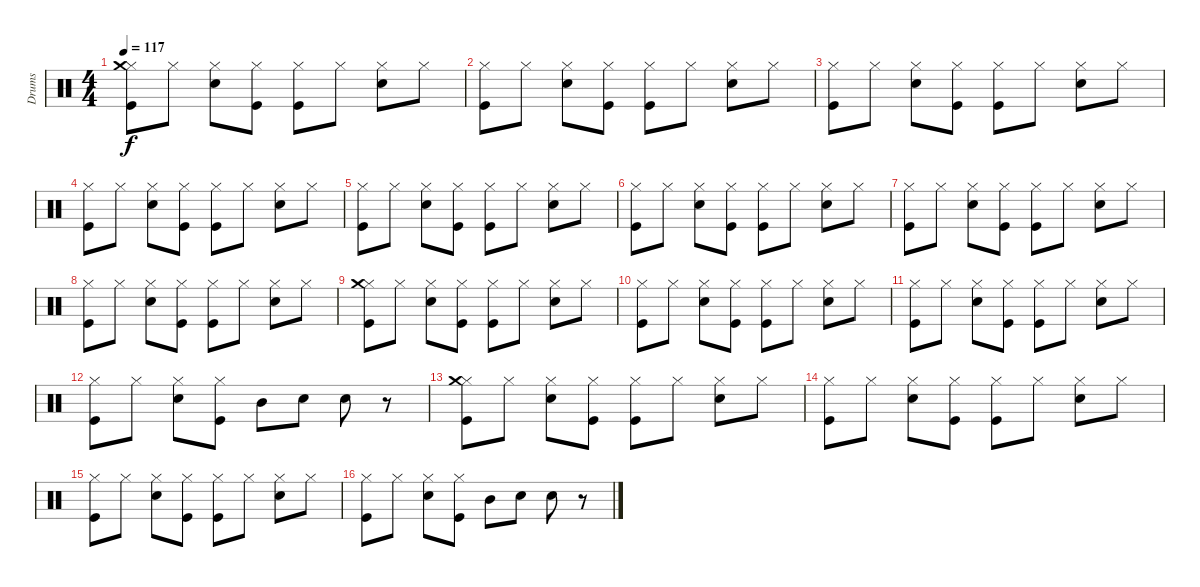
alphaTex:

\track ("Drums" "Drums") {instrument percussion}
\staff {score}
\articulation defaults
\ts (4 4)
\tempo 117
\clef neutral
\ks c
("Kick (hit)" "Hi-Hat (closed)" "Crash medium (hit)").8{dy f} "Hi-Hat (closed)".8 ("Snare (hit) 2" "Hi-Hat (closed)").8 ("Kick (hit)" "Hi-Hat (closed)").8 ("Hi-Hat (closed)" "Kick (hit)").8 "Hi-Hat (closed)".8 ("Snare (hit) 2" "Hi-Hat (closed)").8 "Hi-Hat (closed)".8 |
("Kick (hit)" "Hi-Hat (closed)").8 "Hi-Hat (closed)".8 ("Snare (hit) 2" "Hi-Hat (closed)").8 ("Kick (hit)" "Hi-Hat (closed)").8 ("Hi-Hat (closed)" "Kick (hit)").8 "Hi-Hat (closed)".8 ("Snare (hit) 2" "Hi-Hat (closed)").8 "Hi-Hat (closed)".8 |
("Kick (hit)" "Hi-Hat (closed)").8 "Hi-Hat (closed)".8 ("Snare (hit) 2" "Hi-Hat (closed)").8 ("Kick (hit)" "Hi-Hat (closed)").8 ("Hi-Hat (closed)" "Kick (hit)").8 "Hi-Hat (closed)".8 ("Snare (hit) 2" "Hi-Hat (closed)").8 "Hi-Hat (closed)".8 |
("Kick (hit)" "Hi-Hat (closed)").8 "Hi-Hat (closed)".8 ("Snare (hit) 2" "Hi-Hat (closed)").8 ("Kick (hit)" "Hi-Hat (closed)").8 ("Hi-Hat (closed)" "Kick (hit)").8 "Hi-Hat (closed)".8 ("Snare (hit) 2" "Hi-Hat (closed)").8 "Hi-Hat (closed)".8 |
("Kick (hit)" "Hi-Hat (closed)").8 "Hi-Hat (closed)".8 ("Snare (hit) 2" "Hi-Hat (closed)").8 ("Kick (hit)" "Hi-Hat (closed)").8 ("Hi-Hat (closed)" "Kick (hit)").8 "Hi-Hat (closed)".8 ("Snare (hit) 2" "Hi-Hat (closed)").8 "Hi-Hat (closed)".8 |
("Kick (hit)" "Hi-Hat (closed)").8 "Hi-Hat (closed)".8 ("Snare (hit) 2" "Hi-Hat (closed)").8 ("Kick (hit)" "Hi-Hat (closed)").8 ("Hi-Hat (closed)" "Kick (hit)").8 "Hi-Hat (closed)".8 ("Snare (hit) 2" "Hi-Hat (closed)").8 "Hi-Hat (closed)".8 |
("Kick (hit)" "Hi-Hat (closed)").8 "Hi-Hat (closed)".8 ("Snare (hit) 2" "Hi-Hat (closed)").8 ("Kick (hit)" "Hi-Hat (closed)").8 ("Hi-Hat (closed)" "Kick (hit)").8 "Hi-Hat (closed)".8 ("Snare (hit) 2" "Hi-Hat (closed)").8 "Hi-Hat (closed)".8 |
("Kick (hit)" "Hi-Hat (closed)").8 "Hi-Hat (closed)".8 ("Snare (hit) 2" "Hi-Hat (closed)").8 ("Kick (hit)" "Hi-Hat (closed)").8 ("Hi-Hat (closed)" "Kick (hit)").8 "Hi-Hat (closed)".8 ("Snare (hit) 2" "Hi-Hat (closed)").8 "Hi-Hat (closed)".8 |
("Kick (hit)" "Hi-Hat (closed)" "Crash medium (hit)").8 "Hi-Hat (closed)".8 ("Snare (hit) 2" "Hi-Hat (closed)").8 ("Kick (hit)" "Hi-Hat (closed)").8 ("Hi-Hat (closed)" "Kick (hit)").8 "Hi-Hat (closed)".8 ("Snare (hit) 2" "Hi-Hat (closed)").8 "Hi-Hat (closed)".8 |
("Kick (hit)" "Hi-Hat (closed)").8 "Hi-Hat (closed)".8 ("Snare (hit) 2" "Hi-Hat (closed)").8 ("Kick (hit)" "Hi-Hat (closed)").8 ("Hi-Hat (closed)" "Kick (hit)").8 "Hi-Hat (closed)".8 ("Snare (hit) 2" "Hi-Hat (closed)").8 "Hi-Hat (closed)".8 |
("Kick (hit)" "Hi-Hat (closed)").8 "Hi-Hat (closed)".8 ("Snare (hit) 2" "Hi-Hat (closed)").8 ("Kick (hit)" "Hi-Hat (closed)").8 ("Hi-Hat (closed)" "Kick (hit)").8 "Hi-Hat (closed)".8 ("Snare (hit) 2" "Hi-Hat (closed)").8 "Hi-Hat (closed)".8 |
("Kick (hit)" "Hi-Hat (closed)").8 "Hi-Hat (closed)".8 ("Snare (hit) 2" "Hi-Hat (closed)").8 ("Kick (hit)" "Hi-Hat (closed)").8 "Mid Tom (hit)".8 "Snare (hit) 2".8 "Snare (hit) 2".8 r.8 |
("Kick (hit)" "Hi-Hat (closed)" "Crash medium (hit)").8 "Hi-Hat (closed)".8 ("Snare (hit) 2" "Hi-Hat (closed)").8 ("Kick (hit)" "Hi-Hat (closed)").8 ("Hi-Hat (closed)" "Kick (hit)").8 "Hi-Hat (closed)".8 ("Snare (hit) 2" "Hi-Hat (closed)").8 "Hi-Hat (closed)".8 |
("Kick (hit)" "Hi-Hat (closed)").8 "Hi-Hat (closed)".8 ("Snare (hit) 2" "Hi-Hat (closed)").8 ("Kick (hit)" "Hi-Hat (closed)").8 ("Hi-Hat (closed)" "Kick (hit)").8 "Hi-Hat (closed)".8 ("Snare (hit) 2" "Hi-Hat (closed)").8 "Hi-Hat (closed)".8 |
("Kick (hit)" "Hi-Hat (closed)").8 "Hi-Hat (closed)".8 ("Snare (hit) 2" "Hi-Hat (closed)").8 ("Kick (hit)" "Hi-Hat (closed)").8 ("Hi-Hat (closed)" "Kick (hit)").8 "Hi-Hat (closed)".8 ("Snare (hit) 2" "Hi-Hat (closed)").8 "Hi-Hat (closed)".8 |
("Kick (hit)" "Hi-Hat (closed)").8 "Hi-Hat (closed)".8 ("Snare (hit) 2" "Hi-Hat (closed)").8 ("Kick (hit)" "Hi-Hat (closed)").8 "Mid Tom (hit)".8 "Snare (hit) 2".8 "Snare (hit) 2".8 r.8
